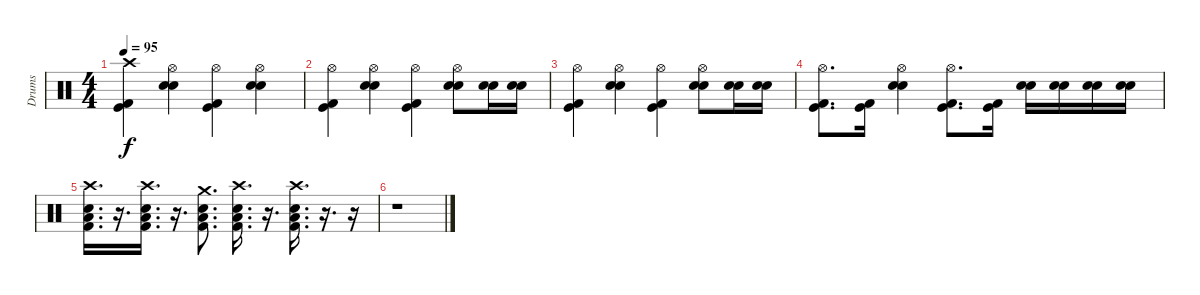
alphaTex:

\track ("Drums" "Drums") {instrument percussion}
\staff {score}
\articulation defaults
\ts (4 4)
\tempo 95
\clef neutral
\ks c
("Crash high (hit)" "Kick (hit)" "Kick (hit) 2").4{dy f} ("Hi-Hat (open)" "Snare (hit) 2" "Electric Snare (hit)").4 ("Hi-Hat (open)" "Kick (hit)" "Kick (hit) 2").4 ("Hi-Hat (open)" "Snare (hit) 2" "Electric Snare (hit)").4 |
("Hi-Hat (open)" "Kick (hit)" "Kick (hit) 2").4 ("Hi-Hat (open)" "Snare (hit) 2" "Electric Snare (hit)").4 ("Hi-Hat (open)" "Kick (hit)" "Kick (hit) 2").4 ("Hi-Hat (open)" "Snare (hit) 2" "Electric Snare (hit)").8 ("Snare (hit) 2" "Electric Snare (hit)").16 ("Snare (hit) 2" "Electric Snare (hit)").16 |
("Hi-Hat (open)" "Kick (hit)" "Kick (hit) 2").4 ("Hi-Hat (open)" "Snare (hit) 2" "Electric Snare (hit)").4 ("Hi-Hat (open)" "Kick (hit)" "Kick (hit) 2").4 ("Hi-Hat (open)" "Snare (hit) 2" "Electric Snare (hit)").8 ("Snare (hit) 2" "Electric Snare (hit)").16 ("Snare (hit) 2" "Electric Snare (hit)").16 |
("Hi-Hat (open)" "Kick (hit)" "Kick (hit) 2").8{d} ("Kick (hit)" "Kick (hit) 2").16 ("Hi-Hat (open)" "Snare (hit) 2" "Electric Snare (hit)").4 ("Hi-Hat (open)" "Kick (hit)" "Kick (hit) 2").8{d} ("Kick (hit)" "Kick (hit) 2").16 ("Snare (hit) 2" "Electric Snare (hit)").16 ("Snare (hit) 2" "Electric Snare (hit)").16 ("Snare (hit) 2" "Electric Snare (hit)").16 ("Snare (hit) 2" "Electric Snare (hit)").16 |
("Crash high (hit)" "Snare (hit) 2" "Low Tom (hit)" "Kick (hit) 2").16{d} r.16{d} ("Crash high (hit)" "Snare (hit) 2" "Low Tom (hit)" "Kick (hit) 2").16{d} r.16{d} ("Crash medium (hit)" "Snare (hit) 2" "Low Tom (hit)" "Kick (hit) 2").8{d} ("Crash high (hit)" "Snare (hit) 2" "Low Tom (hit)" "Kick (hit) 2").16{d} r.16{d} ("Crash high (hit)" "Snare (hit) 2" "Low Tom (hit)" "Kick (hit) 2").16{d} r.16{d} r.16 |
r.1
